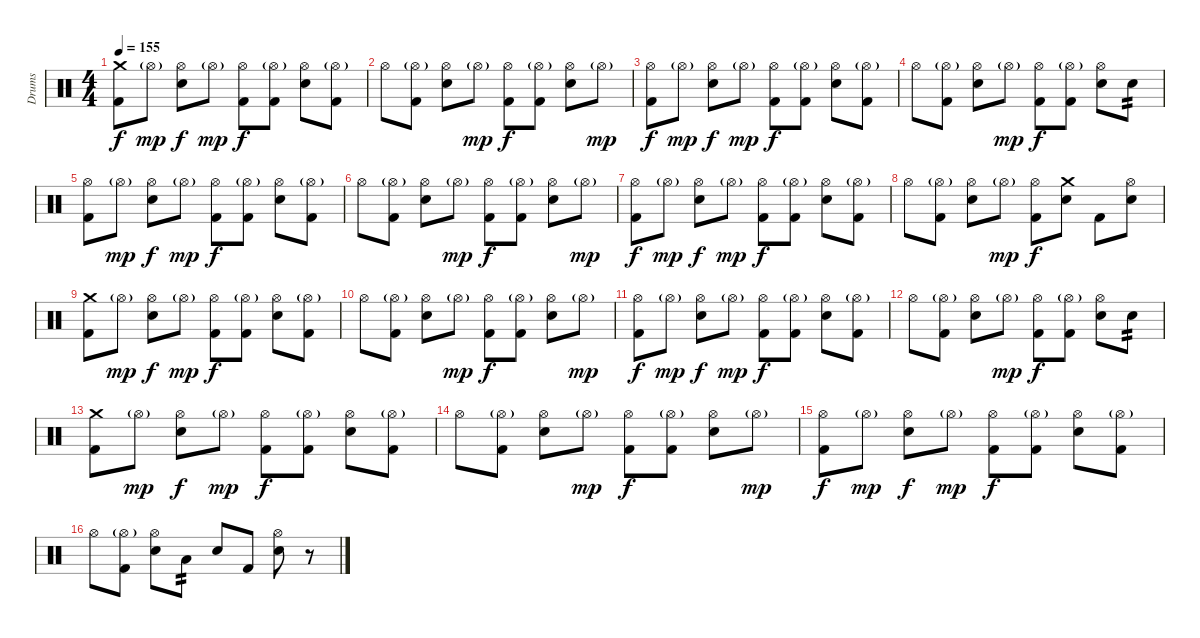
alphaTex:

\track ("Drums" "Drums") {instrument percussion}
\staff {score}
\articulation defaults
\ts (4 4)
\tempo 155
\clef neutral
\ks c
("Crash medium (hit)" "Kick (hit) 2").8{dy f} "Hi-Hat (open)"{g}.8{dy mp} ("Hi-Hat (open)" "Electric Snare (hit)").8{dy f} "Hi-Hat (open)"{g}.8{dy mp} ("Hi-Hat (open)" "Kick (hit) 2").8{dy f} ("Hi-Hat (open)"{g} "Kick (hit) 2").8 ("Hi-Hat (open)" "Electric Snare (hit)").8 ("Hi-Hat (open)"{g} "Kick (hit) 2").8 |
"Hi-Hat (open)".8 ("Hi-Hat (open)"{g} "Kick (hit) 2").8 ("Hi-Hat (open)" "Electric Snare (hit)").8 "Hi-Hat (open)"{g}.8{dy mp} ("Hi-Hat (open)" "Kick (hit) 2").8{dy f} ("Hi-Hat (open)"{g} "Kick (hit) 2").8 ("Hi-Hat (open)" "Electric Snare (hit)").8 "Hi-Hat (open)"{g}.8{dy mp} |
("Hi-Hat (open)" "Kick (hit) 2").8{dy f} "Hi-Hat (open)"{g}.8{dy mp} ("Hi-Hat (open)" "Electric Snare (hit)").8{dy f} "Hi-Hat (open)"{g}.8{dy mp} ("Hi-Hat (open)" "Kick (hit) 2").8{dy f} ("Hi-Hat (open)"{g} "Kick (hit) 2").8 ("Hi-Hat (open)" "Electric Snare (hit)").8 ("Hi-Hat (open)"{g} "Kick (hit) 2").8 |
"Hi-Hat (open)".8 ("Hi-Hat (open)"{g} "Kick (hit) 2").8 ("Hi-Hat (open)" "Electric Snare (hit)").8 "Hi-Hat (open)"{g}.8{dy mp} ("Hi-Hat (open)" "Kick (hit) 2").8{dy f} ("Hi-Hat (open)"{g} "Kick (hit) 2").8 ("Hi-Hat (open)" "Electric Snare (hit)").8 "Electric Snare (hit)".8{tp 2} |
("Hi-Hat (open)" "Kick (hit) 2").8 "Hi-Hat (open)"{g}.8{dy mp} ("Hi-Hat (open)" "Electric Snare (hit)").8{dy f} "Hi-Hat (open)"{g}.8{dy mp} ("Hi-Hat (open)" "Kick (hit) 2").8{dy f} ("Hi-Hat (open)"{g} "Kick (hit) 2").8 ("Hi-Hat (open)" "Electric Snare (hit)").8 ("Hi-Hat (open)"{g} "Kick (hit) 2").8 |
"Hi-Hat (open)".8 ("Hi-Hat (open)"{g} "Kick (hit) 2").8 ("Hi-Hat (open)" "Electric Snare (hit)").8 "Hi-Hat (open)"{g}.8{dy mp} ("Hi-Hat (open)" "Kick (hit) 2").8{dy f} ("Hi-Hat (open)"{g} "Kick (hit) 2").8 ("Hi-Hat (open)" "Electric Snare (hit)").8 "Hi-Hat (open)"{g}.8{dy mp} |
("Hi-Hat (open)" "Kick (hit) 2").8{dy f} "Hi-Hat (open)"{g}.8{dy mp} ("Hi-Hat (open)" "Electric Snare (hit)").8{dy f} "Hi-Hat (open)"{g}.8{dy mp} ("Hi-Hat (open)" "Kick (hit) 2").8{dy f} ("Hi-Hat (open)"{g} "Kick (hit) 2").8 ("Hi-Hat (open)" "Electric Snare (hit)").8 ("Hi-Hat (open)"{g} "Kick (hit) 2").8 |
"Hi-Hat (open)".8 ("Hi-Hat (open)"{g} "Kick (hit) 2").8 ("Hi-Hat (open)" "Electric Snare (hit)").8 "Hi-Hat (open)"{g}.8{dy mp} ("Hi-Hat (open)" "Kick (hit) 2").8{dy f} ("Crash medium (hit)" "Electric Snare (hit)").8 "Kick (hit) 2".8 ("Hi-Hat (open)" "Electric Snare (hit)").8 |
("Crash medium (hit)" "Kick (hit) 2").8 "Hi-Hat (open)"{g}.8{dy mp} ("Hi-Hat (open)" "Electric Snare (hit)").8{dy f} "Hi-Hat (open)"{g}.8{dy mp} ("Hi-Hat (open)" "Kick (hit) 2").8{dy f} ("Hi-Hat (open)"{g} "Kick (hit) 2").8 ("Hi-Hat (open)" "Electric Snare (hit)").8 ("Hi-Hat (open)"{g} "Kick (hit) 2").8 |
"Hi-Hat (open)".8 ("Hi-Hat (open)"{g} "Kick (hit) 2").8 ("Hi-Hat (open)" "Electric Snare (hit)").8 "Hi-Hat (open)"{g}.8{dy mp} ("Hi-Hat (open)" "Kick (hit) 2").8{dy f} ("Hi-Hat (open)"{g} "Kick (hit) 2").8 ("Hi-Hat (open)" "Electric Snare (hit)").8 "Hi-Hat (open)"{g}.8{dy mp} |
("Hi-Hat (open)" "Kick (hit) 2").8{dy f} "Hi-Hat (open)"{g}.8{dy mp} ("Hi-Hat (open)" "Electric Snare (hit)").8{dy f} "Hi-Hat (open)"{g}.8{dy mp} ("Hi-Hat (open)" "Kick (hit) 2").8{dy f} ("Hi-Hat (open)"{g} "Kick (hit) 2").8 ("Hi-Hat (open)" "Electric Snare (hit)").8 ("Hi-Hat (open)"{g} "Kick (hit) 2").8 |
"Hi-Hat (open)".8 ("Hi-Hat (open)"{g} "Kick (hit) 2").8 ("Hi-Hat (open)" "Electric Snare (hit)").8 "Hi-Hat (open)"{g}.8{dy mp} ("Hi-Hat (open)" "Kick (hit) 2").8{dy f} ("Hi-Hat (open)"{g} "Kick (hit) 2").8 ("Hi-Hat (open)" "Electric Snare (hit)").8 "Electric Snare (hit)".8{tp 2} |
("Crash medium (hit)" "Kick (hit) 2").8 "Hi-Hat (open)"{g}.8{dy mp} ("Hi-Hat (open)" "Electric Snare (hit)").8{dy f} "Hi-Hat (open)"{g}.8{dy mp} ("Hi-Hat (open)" "Kick (hit) 2").8{dy f} ("Hi-Hat (open)"{g} "Kick (hit) 2").8 ("Hi-Hat (open)" "Electric Snare (hit)").8 ("Hi-Hat (open)"{g} "Kick (hit) 2").8 |
"Hi-Hat (open)".8 ("Hi-Hat (open)"{g} "Kick (hit) 2").8 ("Hi-Hat (open)" "Electric Snare (hit)").8 "Hi-Hat (open)"{g}.8{dy mp} ("Hi-Hat (open)" "Kick (hit) 2").8{dy f} ("Hi-Hat (open)"{g} "Kick (hit) 2").8 ("Hi-Hat (open)" "Electric Snare (hit)").8 "Hi-Hat (open)"{g}.8{dy mp} |
("Hi-Hat (open)" "Kick (hit) 2").8{dy f} "Hi-Hat (open)"{g}.8{dy mp} ("Hi-Hat (open)" "Electric Snare (hit)").8{dy f} "Hi-Hat (open)"{g}.8{dy mp} ("Hi-Hat (open)" "Kick (hit) 2").8{dy f} ("Hi-Hat (open)"{g} "Kick (hit) 2").8 ("Hi-Hat (open)" "Electric Snare (hit)").8 ("Hi-Hat (open)"{g} "Kick (hit) 2").8 |
"Hi-Hat (open)".8 ("Hi-Hat (open)"{g} "Kick (hit) 2").8 ("Hi-Hat (open)" "Electric Snare (hit)").8 "Low Tom (hit)".8{tp 2} "Electric Snare (hit)".8 "Kick (hit) 2".8 ("Electric Snare (hit)" "Hi-Hat (open)").8 r.8
